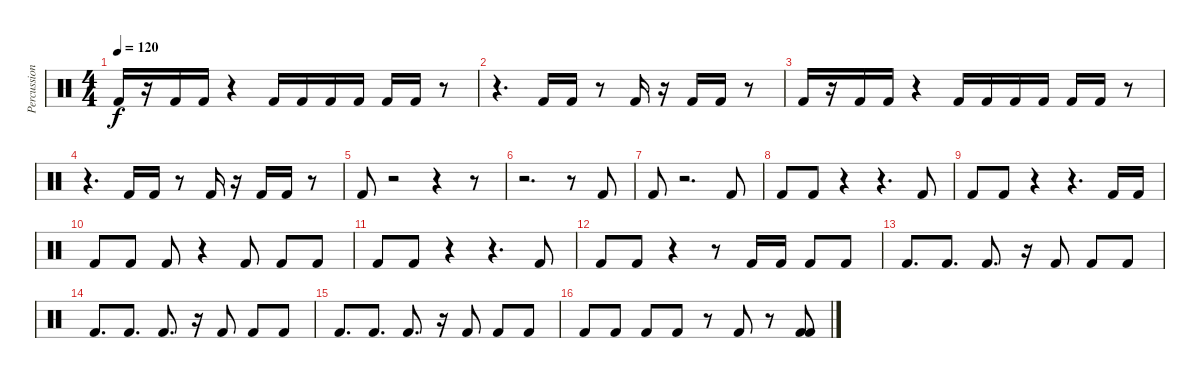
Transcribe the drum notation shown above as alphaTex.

\track ("Percussion" "Percussion") {instrument percussion}
\staff {score}
\articulation defaults
\ts (4 4)
\tempo 120
\clef neutral
\ks c "Kick (hit) 2".16{dy f}
r.16 "Kick (hit) 2".16 "Kick (hit) 2".16 r.4 "Kick (hit) 2".16 "Kick (hit) 2".16 "Kick (hit) 2".16 "Kick (hit) 2".16 "Kick (hit) 2".16 "Kick (hit) 2".16 r.8 |
r.4{d} "Kick (hit) 2".16 "Kick (hit) 2".16 r.8 "Kick (hit) 2".16 r.16 "Kick (hit) 2".16 "Kick (hit) 2".16 r.8 |
"Kick (hit) 2".16 r.16 "Kick (hit) 2".16 "Kick (hit) 2".16 r.4 "Kick (hit) 2".16 "Kick (hit) 2".16 "Kick (hit) 2".16 "Kick (hit) 2".16 "Kick (hit) 2".16 "Kick (hit) 2".16 r.8 |
r.4{d} "Kick (hit) 2".16 "Kick (hit) 2".16 r.8 "Kick (hit) 2".16 r.16 "Kick (hit) 2".16 "Kick (hit) 2".16 r.8 |
"Kick (hit) 2".8 r.2 r.4 r.8 |
r.2{d} r.8 "Kick (hit) 2".8 |
"Kick (hit) 2".8 r.2{d} "Kick (hit) 2".8 |
"Kick (hit) 2".8 "Kick (hit) 2".8 r.4 r.4{d} "Kick (hit) 2".8 |
"Kick (hit) 2".8 "Kick (hit) 2".8 r.4 r.4{d} "Kick (hit) 2".16 "Kick (hit) 2".16 |
"Kick (hit) 2".8 "Kick (hit) 2".8 "Kick (hit) 2".8 r.4 "Kick (hit) 2".8 "Kick (hit) 2".8 "Kick (hit) 2".8 |
"Kick (hit) 2".8 "Kick (hit) 2".8 r.4 r.4{d} "Kick (hit) 2".8 |
"Kick (hit) 2".8 "Kick (hit) 2".8 r.4 r.8 "Kick (hit) 2".16 "Kick (hit) 2".16 "Kick (hit) 2".8 "Kick (hit) 2".8 |
"Kick (hit) 2".8{d} "Kick (hit) 2".8{d} "Kick (hit) 2".8{d} r.16 "Kick (hit) 2".8 "Kick (hit) 2".8 "Kick (hit) 2".8 |
"Kick (hit) 2".8{d} "Kick (hit) 2".8{d} "Kick (hit) 2".8{d} r.16 "Kick (hit) 2".8 "Kick (hit) 2".8 "Kick (hit) 2".8 |
"Kick (hit) 2".8{d} "Kick (hit) 2".8{d} "Kick (hit) 2".8{d} r.16 "Kick (hit) 2".8 "Kick (hit) 2".8 "Kick (hit) 2".8 |
"Kick (hit) 2".8 "Kick (hit) 2".8 "Kick (hit) 2".8 "Kick (hit) 2".8 r.8 "Kick (hit) 2".8 r.8 ("Kick (hit) 2" "Kick (hit) 2").8
